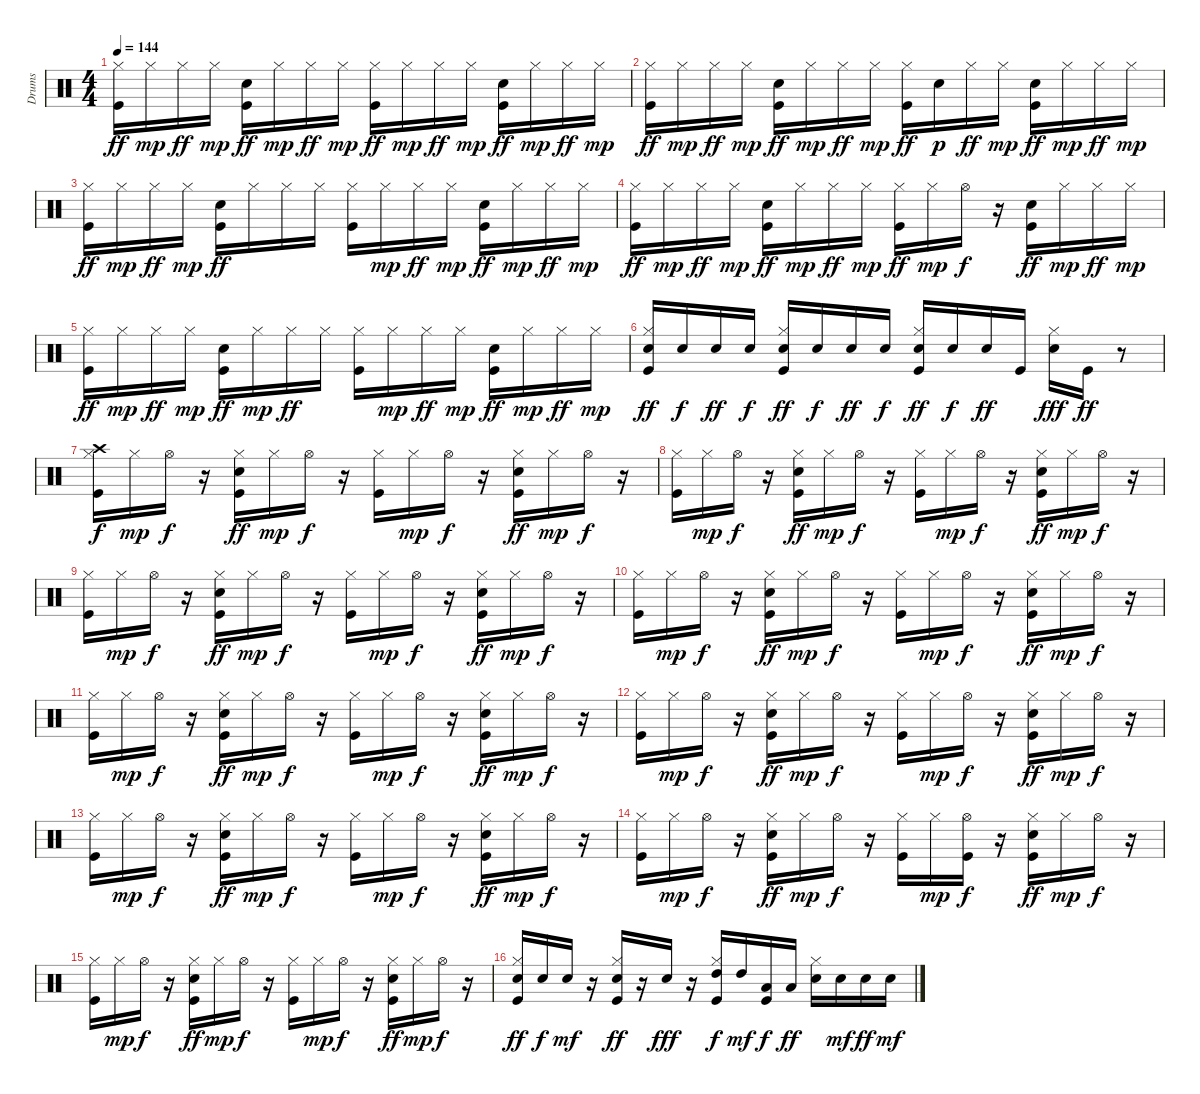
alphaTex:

\track ("Drums" "Drums") {instrument percussion}
\staff {score}
\articulation defaults
\ts (4 4)
\tempo 144
\clef neutral
\ks c
("Kick (hit)" "Hi-Hat (closed)").16{dy ff} "Hi-Hat (closed)".16{dy mp} "Hi-Hat (closed)".16{dy ff} "Hi-Hat (closed)".16{dy mp} ("Kick (hit)" "Snare (hit) 2").16{dy ff} "Hi-Hat (closed)".16{dy mp} "Hi-Hat (closed)".16{dy ff} "Hi-Hat (closed)".16{dy mp} ("Kick (hit)" "Hi-Hat (closed)").16{dy ff} "Hi-Hat (closed)".16{dy mp} "Hi-Hat (closed)".16{dy ff} "Hi-Hat (closed)".16{dy mp} ("Kick (hit)" "Snare (hit) 2").16{dy ff} "Hi-Hat (closed)".16{dy mp} "Hi-Hat (closed)".16{dy ff} "Hi-Hat (closed)".16{dy mp} |
("Kick (hit)" "Hi-Hat (closed)").16{dy ff} "Hi-Hat (closed)".16{dy mp} "Hi-Hat (closed)".16{dy ff} "Hi-Hat (closed)".16{dy mp} ("Kick (hit)" "Snare (hit) 2").16{dy ff} "Hi-Hat (closed)".16{dy mp} "Hi-Hat (closed)".16{dy ff} "Hi-Hat (closed)".16{dy mp} ("Kick (hit)" "Hi-Hat (closed)").16{dy ff} "Snare (hit) 2".16{dy p} "Hi-Hat (closed)".16{dy ff} "Hi-Hat (closed)".16{dy mp} ("Kick (hit)" "Snare (hit) 2").16{dy ff} "Hi-Hat (closed)".16{dy mp} "Hi-Hat (closed)".16{dy ff} "Hi-Hat (closed)".16{dy mp} |
("Kick (hit)" "Hi-Hat (closed)").16{dy ff} "Hi-Hat (closed)".16{dy mp} "Hi-Hat (closed)".16{dy ff} "Hi-Hat (closed)".16{dy mp} ("Kick (hit)" "Snare (hit) 2").16{dy ff} "Hi-Hat (closed)".16 "Hi-Hat (closed)".16 "Hi-Hat (closed)".16 ("Kick (hit)" "Hi-Hat (closed)").16 "Hi-Hat (closed)".16{dy mp} "Hi-Hat (closed)".16{dy ff} "Hi-Hat (closed)".16{dy mp} ("Kick (hit)" "Snare (hit) 2").16{dy ff} "Hi-Hat (closed)".16{dy mp} "Hi-Hat (closed)".16{dy ff} "Hi-Hat (closed)".16{dy mp} |
("Kick (hit)" "Hi-Hat (closed)").16{dy ff} "Hi-Hat (closed)".16{dy mp} "Hi-Hat (closed)".16{dy ff} "Hi-Hat (closed)".16{dy mp} ("Kick (hit)" "Snare (hit) 2").16{dy ff} "Hi-Hat (closed)".16{dy mp} "Hi-Hat (closed)".16{dy ff} "Hi-Hat (closed)".16{dy mp} ("Kick (hit)" "Hi-Hat (closed)").16{dy ff} "Hi-Hat (closed)".16{dy mp} "Hi-Hat (open)".16{dy f} r.16 ("Kick (hit)" "Snare (hit) 2").16{dy ff} "Hi-Hat (closed)".16{dy mp} "Hi-Hat (closed)".16{dy ff} "Hi-Hat (closed)".16{dy mp} |
("Kick (hit)" "Hi-Hat (closed)").16{dy ff} "Hi-Hat (closed)".16{dy mp} "Hi-Hat (closed)".16{dy ff} "Hi-Hat (closed)".16{dy mp} ("Kick (hit)" "Snare (hit) 2").16{dy ff} "Hi-Hat (closed)".16{dy mp} "Hi-Hat (closed)".16{dy ff} "Hi-Hat (closed)".16 ("Kick (hit)" "Hi-Hat (closed)").16 "Hi-Hat (closed)".16{dy mp} "Hi-Hat (closed)".16{dy ff} "Hi-Hat (closed)".16{dy mp} ("Kick (hit)" "Snare (hit) 2").16{dy ff} "Hi-Hat (closed)".16{dy mp} "Hi-Hat (closed)".16{dy ff} "Hi-Hat (closed)".16{dy mp} |
("Kick (hit)" "Snare (hit) 2" "Hi-Hat (closed)").16{dy ff} "Snare (hit) 2".16{dy f} "Snare (hit) 2".16{dy ff} "Snare (hit) 2".16{dy f} ("Kick (hit)" "Snare (hit) 2" "Hi-Hat (closed)").16{dy ff} "Snare (hit) 2".16{dy f} "Snare (hit) 2".16{dy ff} "Snare (hit) 2".16{dy f} ("Kick (hit)" "Snare (hit) 2" "Hi-Hat (closed)").16{dy ff} "Snare (hit) 2".16{dy f} "Snare (hit) 2".16{dy ff} "Kick (hit)".16 ("Snare (hit) 2" "Hi-Hat (closed)").16{dy fff} "Kick (hit)".16{dy ff} r.8 |
("Kick (hit)" "Hi-Hat (closed)" "Crash high (hit)").16{dy f} "Hi-Hat (closed)".16{dy mp} "Hi-Hat (open)".16{dy f} r.16 ("Kick (hit)" "Snare (hit) 2" "Hi-Hat (closed)").16{dy ff} "Hi-Hat (closed)".16{dy mp} "Hi-Hat (open)".16{dy f} r.16 ("Kick (hit)" "Hi-Hat (closed)").16 "Hi-Hat (closed)".16{dy mp} "Hi-Hat (open)".16{dy f} r.16 ("Kick (hit)" "Snare (hit) 2" "Hi-Hat (closed)").16{dy ff} "Hi-Hat (closed)".16{dy mp} "Hi-Hat (open)".16{dy f} r.16 |
("Kick (hit)" "Hi-Hat (closed)").16 "Hi-Hat (closed)".16{dy mp} "Hi-Hat (open)".16{dy f} r.16 ("Kick (hit)" "Snare (hit) 2" "Hi-Hat (closed)").16{dy ff} "Hi-Hat (closed)".16{dy mp} "Hi-Hat (open)".16{dy f} r.16 ("Kick (hit)" "Hi-Hat (closed)").16 "Hi-Hat (closed)".16{dy mp} "Hi-Hat (open)".16{dy f} r.16 ("Kick (hit)" "Snare (hit) 2" "Hi-Hat (closed)").16{dy ff} "Hi-Hat (closed)".16{dy mp} "Hi-Hat (open)".16{dy f} r.16 |
("Kick (hit)" "Hi-Hat (closed)").16 "Hi-Hat (closed)".16{dy mp} "Hi-Hat (open)".16{dy f} r.16 ("Kick (hit)" "Snare (hit) 2" "Hi-Hat (closed)").16{dy ff} "Hi-Hat (closed)".16{dy mp} "Hi-Hat (open)".16{dy f} r.16 ("Kick (hit)" "Hi-Hat (closed)").16 "Hi-Hat (closed)".16{dy mp} "Hi-Hat (open)".16{dy f} r.16 ("Kick (hit)" "Snare (hit) 2" "Hi-Hat (closed)").16{dy ff} "Hi-Hat (closed)".16{dy mp} "Hi-Hat (open)".16{dy f} r.16 |
("Kick (hit)" "Hi-Hat (closed)").16 "Hi-Hat (closed)".16{dy mp} "Hi-Hat (open)".16{dy f} r.16 ("Kick (hit)" "Snare (hit) 2" "Hi-Hat (closed)").16{dy ff} "Hi-Hat (closed)".16{dy mp} "Hi-Hat (open)".16{dy f} r.16 ("Kick (hit)" "Hi-Hat (closed)").16 "Hi-Hat (closed)".16{dy mp} "Hi-Hat (open)".16{dy f} r.16 ("Kick (hit)" "Snare (hit) 2" "Hi-Hat (closed)").16{dy ff} "Hi-Hat (closed)".16{dy mp} "Hi-Hat (open)".16{dy f} r.16 |
("Kick (hit)" "Hi-Hat (closed)").16 "Hi-Hat (closed)".16{dy mp} "Hi-Hat (open)".16{dy f} r.16 ("Kick (hit)" "Snare (hit) 2" "Hi-Hat (closed)").16{dy ff} "Hi-Hat (closed)".16{dy mp} "Hi-Hat (open)".16{dy f} r.16 ("Kick (hit)" "Hi-Hat (closed)").16 "Hi-Hat (closed)".16{dy mp} "Hi-Hat (open)".16{dy f} r.16 ("Kick (hit)" "Snare (hit) 2" "Hi-Hat (closed)").16{dy ff} "Hi-Hat (closed)".16{dy mp} "Hi-Hat (open)".16{dy f} r.16 |
("Kick (hit)" "Hi-Hat (closed)").16 "Hi-Hat (closed)".16{dy mp} "Hi-Hat (open)".16{dy f} r.16 ("Kick (hit)" "Snare (hit) 2" "Hi-Hat (closed)").16{dy ff} "Hi-Hat (closed)".16{dy mp} "Hi-Hat (open)".16{dy f} r.16 ("Kick (hit)" "Hi-Hat (closed)").16 "Hi-Hat (closed)".16{dy mp} "Hi-Hat (open)".16{dy f} r.16 ("Kick (hit)" "Snare (hit) 2" "Hi-Hat (closed)").16{dy ff} "Hi-Hat (closed)".16{dy mp} "Hi-Hat (open)".16{dy f} r.16 |
("Kick (hit)" "Hi-Hat (closed)").16 "Hi-Hat (closed)".16{dy mp} "Hi-Hat (open)".16{dy f} r.16 ("Kick (hit)" "Snare (hit) 2" "Hi-Hat (closed)").16{dy ff} "Hi-Hat (closed)".16{dy mp} "Hi-Hat (open)".16{dy f} r.16 ("Kick (hit)" "Hi-Hat (closed)").16 "Hi-Hat (closed)".16{dy mp} "Hi-Hat (open)".16{dy f} r.16 ("Kick (hit)" "Snare (hit) 2" "Hi-Hat (closed)").16{dy ff} "Hi-Hat (closed)".16{dy mp} "Hi-Hat (open)".16{dy f} r.16 |
("Kick (hit)" "Hi-Hat (closed)").16 "Hi-Hat (closed)".16{dy mp} "Hi-Hat (open)".16{dy f} r.16 ("Kick (hit)" "Snare (hit) 2" "Hi-Hat (closed)").16{dy ff} "Hi-Hat (closed)".16{dy mp} "Hi-Hat (open)".16{dy f} r.16 ("Kick (hit)" "Hi-Hat (closed)").16 "Hi-Hat (closed)".16{dy mp} ("Kick (hit)" "Hi-Hat (open)").16{dy f} r.16 ("Kick (hit)" "Snare (hit) 2" "Hi-Hat (closed)").16{dy ff} "Hi-Hat (closed)".16{dy mp} "Hi-Hat (open)".16{dy f} r.16 |
("Kick (hit)" "Hi-Hat (closed)").16 "Hi-Hat (closed)".16{dy mp} "Hi-Hat (open)".16{dy f} r.16 ("Kick (hit)" "Snare (hit) 2" "Hi-Hat (closed)").16{dy ff} "Hi-Hat (closed)".16{dy mp} "Hi-Hat (open)".16{dy f} r.16 ("Kick (hit)" "Hi-Hat (closed)").16 "Hi-Hat (closed)".16{dy mp} "Hi-Hat (open)".16{dy f} r.16 ("Kick (hit)" "Snare (hit) 2" "Hi-Hat (closed)").16{dy ff} "Hi-Hat (closed)".16{dy mp} "Hi-Hat (open)".16{dy f} r.16 |
("Kick (hit)" "Snare (hit) 2" "Hi-Hat (closed)").16{dy ff} "Snare (hit) 2".16{dy f} "Snare (hit) 2".16{dy mf} r.16 ("Kick (hit)" "Snare (hit) 2" "Hi-Hat (closed)").16{dy ff} r.16 "Snare (hit) 2".16{dy fff} r.16 ("Kick (hit)" "Hi-Hat (closed)" "High Tom (hit)").16{dy f} "High Tom (hit)".16{dy mf} ("Kick (hit)" "Low Tom (hit)").16{dy f} "Low Floor Tom (hit)".16{dy ff} ("Snare (hit) 2" "Hi-Hat (closed)").16 "Snare (hit) 2".16{dy mf} "Snare (hit) 2".16{dy ff} "Snare (hit) 2".16{dy mf}
